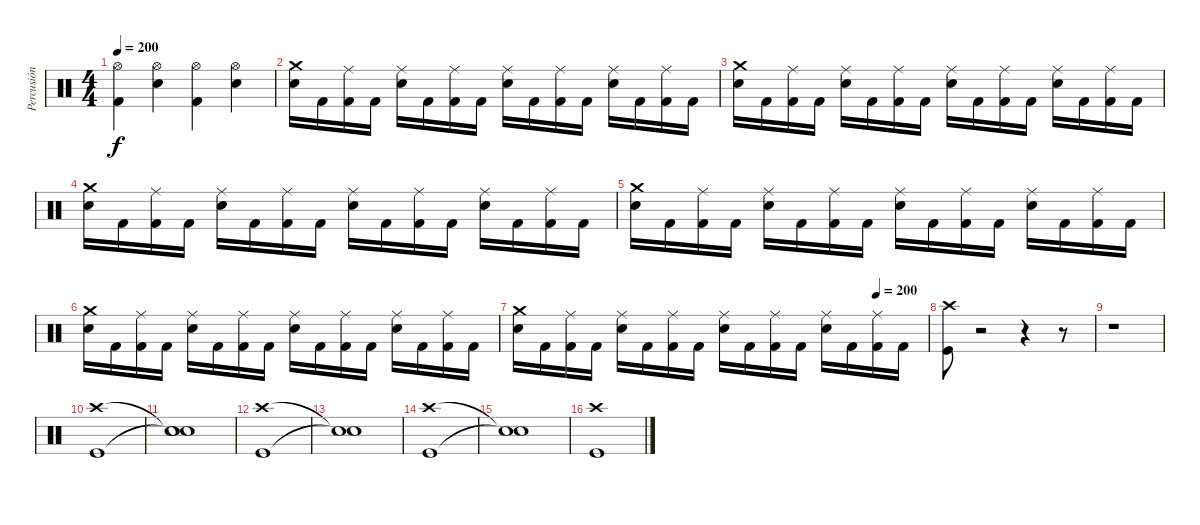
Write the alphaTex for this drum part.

\track ("Percusión" "Percusión") {instrument percussion}
\staff {score}
\articulation defaults
\ts (4 4)
\tempo 200
\clef neutral
\ks c
("Hi-Hat (open)" "Kick (hit) 2").4{dy f} ("Hi-Hat (open)" "Electric Snare (hit)").4 ("Hi-Hat (open)" "Kick (hit) 2").4 ("Hi-Hat (open)" "Electric Snare (hit)").4 |
("Crash medium (hit)" "Electric Snare (hit)").16 "Kick (hit) 2".16 ("Ride (middle)" "Kick (hit) 2").16 "Kick (hit) 2".16 ("Ride (middle)" "Electric Snare (hit)").16 "Kick (hit) 2".16 ("Ride (middle)" "Kick (hit) 2").16 "Kick (hit) 2".16 ("Ride (middle)" "Electric Snare (hit)").16 "Kick (hit) 2".16 ("Ride (middle)" "Kick (hit) 2").16 "Kick (hit) 2".16 ("Ride (middle)" "Electric Snare (hit)").16 "Kick (hit) 2".16 ("Ride (middle)" "Kick (hit) 2").16 "Kick (hit) 2".16 |
("Crash medium (hit)" "Electric Snare (hit)").16 "Kick (hit) 2".16 ("Ride (middle)" "Kick (hit) 2").16 "Kick (hit) 2".16 ("Ride (middle)" "Electric Snare (hit)").16 "Kick (hit) 2".16 ("Ride (middle)" "Kick (hit) 2").16 "Kick (hit) 2".16 ("Ride (middle)" "Electric Snare (hit)").16 "Kick (hit) 2".16 ("Ride (middle)" "Kick (hit) 2").16 "Kick (hit) 2".16 ("Ride (middle)" "Electric Snare (hit)").16 "Kick (hit) 2".16 ("Ride (middle)" "Kick (hit) 2").16 "Kick (hit) 2".16 |
("Crash medium (hit)" "Electric Snare (hit)").16 "Kick (hit) 2".16 ("Ride (middle)" "Kick (hit) 2").16 "Kick (hit) 2".16 ("Ride (middle)" "Electric Snare (hit)").16 "Kick (hit) 2".16 ("Ride (middle)" "Kick (hit) 2").16 "Kick (hit) 2".16 ("Ride (middle)" "Electric Snare (hit)").16 "Kick (hit) 2".16 ("Ride (middle)" "Kick (hit) 2").16 "Kick (hit) 2".16 ("Ride (middle)" "Electric Snare (hit)").16 "Kick (hit) 2".16 ("Ride (middle)" "Kick (hit) 2").16 "Kick (hit) 2".16 |
("Crash medium (hit)" "Electric Snare (hit)").16 "Kick (hit) 2".16 ("Ride (middle)" "Kick (hit) 2").16 "Kick (hit) 2".16 ("Ride (middle)" "Electric Snare (hit)").16 "Kick (hit) 2".16 ("Ride (middle)" "Kick (hit) 2").16 "Kick (hit) 2".16 ("Ride (middle)" "Electric Snare (hit)").16 "Kick (hit) 2".16 ("Ride (middle)" "Kick (hit) 2").16 "Kick (hit) 2".16 ("Ride (middle)" "Electric Snare (hit)").16 "Kick (hit) 2".16 ("Ride (middle)" "Kick (hit) 2").16 "Kick (hit) 2".16 |
("Crash medium (hit)" "Electric Snare (hit)").16 "Kick (hit) 2".16 ("Ride (middle)" "Kick (hit) 2").16 "Kick (hit) 2".16 ("Ride (middle)" "Electric Snare (hit)").16 "Kick (hit) 2".16 ("Ride (middle)" "Kick (hit) 2").16 "Kick (hit) 2".16 ("Ride (middle)" "Electric Snare (hit)").16 "Kick (hit) 2".16 ("Ride (middle)" "Kick (hit) 2").16 "Kick (hit) 2".16 ("Ride (middle)" "Electric Snare (hit)").16 "Kick (hit) 2".16 ("Ride (middle)" "Kick (hit) 2").16 "Kick (hit) 2".16 |
\tempo (200 0.875)
("Crash medium (hit)" "Electric Snare (hit)").16 "Kick (hit) 2".16 ("Ride (middle)" "Kick (hit) 2").16 "Kick (hit) 2".16 ("Ride (middle)" "Electric Snare (hit)").16 "Kick (hit) 2".16 ("Ride (middle)" "Kick (hit) 2").16 "Kick (hit) 2".16 ("Ride (middle)" "Electric Snare (hit)").16 "Kick (hit) 2".16 ("Ride (middle)" "Kick (hit) 2").16 "Kick (hit) 2".16 ("Ride (middle)" "Electric Snare (hit)").16 "Kick (hit) 2".16 ("Ride (middle)" "Kick (hit) 2").16 "Kick (hit) 2".16 |
("Crash high (hit)" "Kick (hit)").8 r.2 r.4 r.8 |
r.1 |
("Crash high (hit)" "Kick (hit)").1 |
("Snare (hit)"{t} "Snare (hit)"{t} "Snare (hit)").1 |
("Crash high (hit)" "Kick (hit)").1 |
("Snare (hit)"{t} "Snare (hit)"{t}).1 |
("Crash high (hit)" "Kick (hit)").1 |
("Snare (hit)"{t} "Snare (hit)"{t}).1 |
("Crash high (hit)" "Kick (hit)").1
